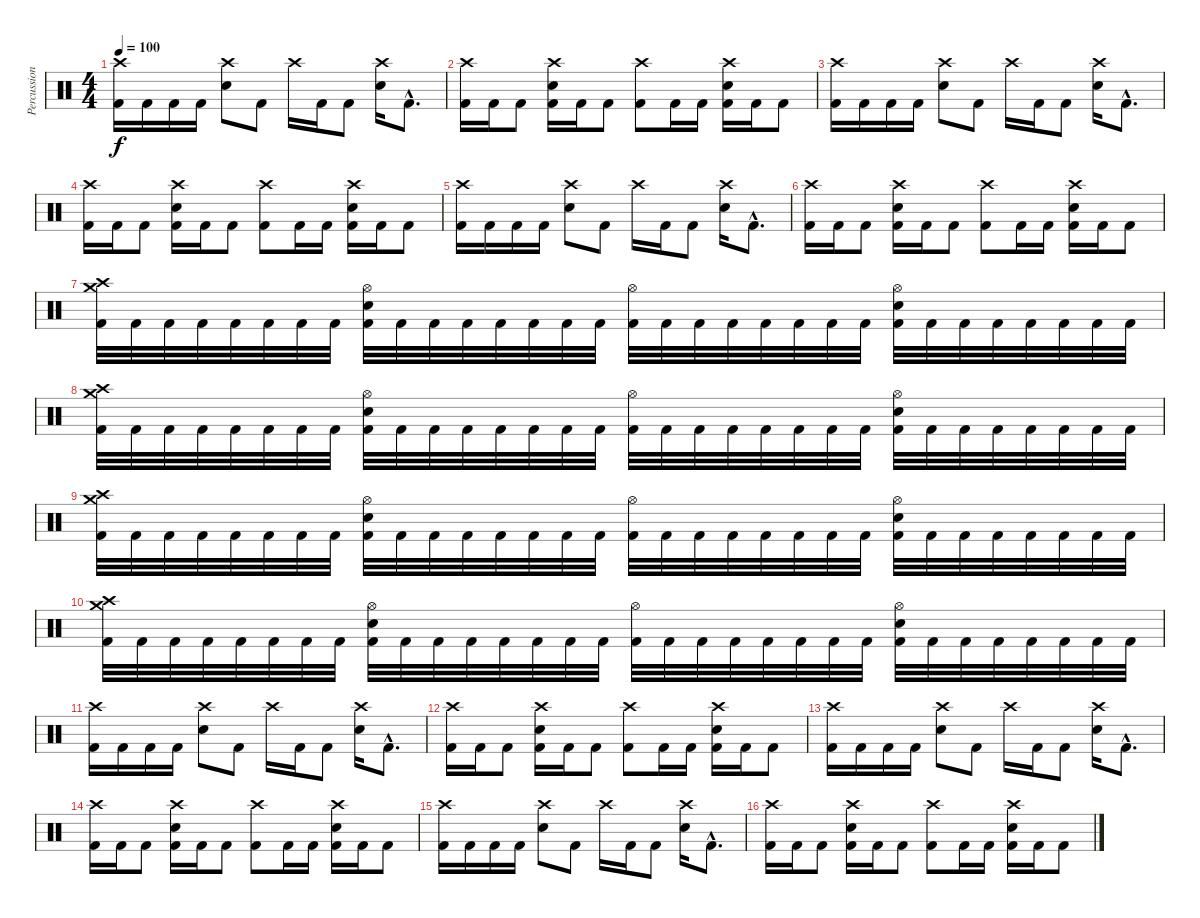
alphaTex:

\track ("Percussion" "Percussion") {instrument percussion}
\staff {score}
\articulation defaults
\ts (4 4)
\tempo 100
\clef neutral
\ks c
("Crash high (hit)" "Kick (hit) 2").16{dy f} "Kick (hit) 2".16 "Kick (hit) 2".16 "Kick (hit) 2".16 ("Crash high (hit)" "Snare (hit) 2").8 "Kick (hit) 2".8 "Crash high (hit)".16 "Kick (hit) 2".16 "Kick (hit) 2".8 ("Crash high (hit)" "Snare (hit) 2").16 "Kick (hit) 2"{hac}.8{d} |
("Crash high (hit)" "Kick (hit) 2").16 "Kick (hit) 2".16 "Kick (hit) 2".8 ("Crash high (hit)" "Snare (hit) 2" "Kick (hit) 2").16 "Kick (hit) 2".16 "Kick (hit) 2".8 ("Crash high (hit)" "Kick (hit) 2").8 "Kick (hit) 2".16 "Kick (hit) 2".16 ("Crash high (hit)" "Snare (hit) 2" "Kick (hit) 2").16 "Kick (hit) 2".16 "Kick (hit) 2".8 |
("Crash high (hit)" "Kick (hit) 2").16 "Kick (hit) 2".16 "Kick (hit) 2".16 "Kick (hit) 2".16 ("Crash high (hit)" "Snare (hit) 2").8 "Kick (hit) 2".8 "Crash high (hit)".16 "Kick (hit) 2".16 "Kick (hit) 2".8 ("Crash high (hit)" "Snare (hit) 2").16 "Kick (hit) 2"{hac}.8{d} |
("Crash high (hit)" "Kick (hit) 2").16 "Kick (hit) 2".16 "Kick (hit) 2".8 ("Crash high (hit)" "Snare (hit) 2" "Kick (hit) 2").16 "Kick (hit) 2".16 "Kick (hit) 2".8 ("Crash high (hit)" "Kick (hit) 2").8 "Kick (hit) 2".16 "Kick (hit) 2".16 ("Crash high (hit)" "Snare (hit) 2" "Kick (hit) 2").16 "Kick (hit) 2".16 "Kick (hit) 2".8 |
("Crash high (hit)" "Kick (hit) 2").16 "Kick (hit) 2".16 "Kick (hit) 2".16 "Kick (hit) 2".16 ("Crash high (hit)" "Snare (hit) 2").8 "Kick (hit) 2".8 "Crash high (hit)".16 "Kick (hit) 2".16 "Kick (hit) 2".8 ("Crash high (hit)" "Snare (hit) 2").16 "Kick (hit) 2"{hac}.8{d} |
("Crash high (hit)" "Kick (hit) 2").16 "Kick (hit) 2".16 "Kick (hit) 2".8 ("Crash high (hit)" "Snare (hit) 2" "Kick (hit) 2").16 "Kick (hit) 2".16 "Kick (hit) 2".8 ("Crash high (hit)" "Kick (hit) 2").8 "Kick (hit) 2".16 "Kick (hit) 2".16 ("Crash high (hit)" "Snare (hit) 2" "Kick (hit) 2").16 "Kick (hit) 2".16 "Kick (hit) 2".8 |
("Crash high (hit)" "Crash medium (hit)" "Kick (hit) 2").32 "Kick (hit) 2".32 "Kick (hit) 2".32 "Kick (hit) 2".32 "Kick (hit) 2".32 "Kick (hit) 2".32 "Kick (hit) 2".32 "Kick (hit) 2".32 ("Hi-Hat (open)" "Snare (hit) 2" "Kick (hit) 2").32 "Kick (hit) 2".32 "Kick (hit) 2".32 "Kick (hit) 2".32 "Kick (hit) 2".32 "Kick (hit) 2".32 "Kick (hit) 2".32 "Kick (hit) 2".32 ("Hi-Hat (open)" "Kick (hit) 2").32 "Kick (hit) 2".32 "Kick (hit) 2".32 "Kick (hit) 2".32 "Kick (hit) 2".32 "Kick (hit) 2".32 "Kick (hit) 2".32 "Kick (hit) 2".32 ("Hi-Hat (open)" "Snare (hit) 2" "Kick (hit) 2").32 "Kick (hit) 2".32 "Kick (hit) 2".32 "Kick (hit) 2".32 "Kick (hit) 2".32 "Kick (hit) 2".32 "Kick (hit) 2".32 "Kick (hit) 2".32 |
("Crash high (hit)" "Crash medium (hit)" "Kick (hit) 2").32 "Kick (hit) 2".32 "Kick (hit) 2".32 "Kick (hit) 2".32 "Kick (hit) 2".32 "Kick (hit) 2".32 "Kick (hit) 2".32 "Kick (hit) 2".32 ("Hi-Hat (open)" "Snare (hit) 2" "Kick (hit) 2").32 "Kick (hit) 2".32 "Kick (hit) 2".32 "Kick (hit) 2".32 "Kick (hit) 2".32 "Kick (hit) 2".32 "Kick (hit) 2".32 "Kick (hit) 2".32 ("Hi-Hat (open)" "Kick (hit) 2").32 "Kick (hit) 2".32 "Kick (hit) 2".32 "Kick (hit) 2".32 "Kick (hit) 2".32 "Kick (hit) 2".32 "Kick (hit) 2".32 "Kick (hit) 2".32 ("Hi-Hat (open)" "Snare (hit) 2" "Kick (hit) 2").32 "Kick (hit) 2".32 "Kick (hit) 2".32 "Kick (hit) 2".32 "Kick (hit) 2".32 "Kick (hit) 2".32 "Kick (hit) 2".32 "Kick (hit) 2".32 |
("Crash high (hit)" "Crash medium (hit)" "Kick (hit) 2").32 "Kick (hit) 2".32 "Kick (hit) 2".32 "Kick (hit) 2".32 "Kick (hit) 2".32 "Kick (hit) 2".32 "Kick (hit) 2".32 "Kick (hit) 2".32 ("Hi-Hat (open)" "Snare (hit) 2" "Kick (hit) 2").32 "Kick (hit) 2".32 "Kick (hit) 2".32 "Kick (hit) 2".32 "Kick (hit) 2".32 "Kick (hit) 2".32 "Kick (hit) 2".32 "Kick (hit) 2".32 ("Hi-Hat (open)" "Kick (hit) 2").32 "Kick (hit) 2".32 "Kick (hit) 2".32 "Kick (hit) 2".32 "Kick (hit) 2".32 "Kick (hit) 2".32 "Kick (hit) 2".32 "Kick (hit) 2".32 ("Hi-Hat (open)" "Snare (hit) 2" "Kick (hit) 2").32 "Kick (hit) 2".32 "Kick (hit) 2".32 "Kick (hit) 2".32 "Kick (hit) 2".32 "Kick (hit) 2".32 "Kick (hit) 2".32 "Kick (hit) 2".32 |
("Crash high (hit)" "Crash medium (hit)" "Kick (hit) 2").32 "Kick (hit) 2".32 "Kick (hit) 2".32 "Kick (hit) 2".32 "Kick (hit) 2".32 "Kick (hit) 2".32 "Kick (hit) 2".32 "Kick (hit) 2".32 ("Hi-Hat (open)" "Snare (hit) 2" "Kick (hit) 2").32 "Kick (hit) 2".32 "Kick (hit) 2".32 "Kick (hit) 2".32 "Kick (hit) 2".32 "Kick (hit) 2".32 "Kick (hit) 2".32 "Kick (hit) 2".32 ("Hi-Hat (open)" "Kick (hit) 2").32 "Kick (hit) 2".32 "Kick (hit) 2".32 "Kick (hit) 2".32 "Kick (hit) 2".32 "Kick (hit) 2".32 "Kick (hit) 2".32 "Kick (hit) 2".32 ("Hi-Hat (open)" "Snare (hit) 2" "Kick (hit) 2").32 "Kick (hit) 2".32 "Kick (hit) 2".32 "Kick (hit) 2".32 "Kick (hit) 2".32 "Kick (hit) 2".32 "Kick (hit) 2".32 "Kick (hit) 2".32 |
("Crash high (hit)" "Kick (hit) 2").16 "Kick (hit) 2".16 "Kick (hit) 2".16 "Kick (hit) 2".16 ("Crash high (hit)" "Snare (hit) 2").8 "Kick (hit) 2".8 "Crash high (hit)".16 "Kick (hit) 2".16 "Kick (hit) 2".8 ("Crash high (hit)" "Snare (hit) 2").16 "Kick (hit) 2"{hac}.8{d} |
("Crash high (hit)" "Kick (hit) 2").16 "Kick (hit) 2".16 "Kick (hit) 2".8 ("Crash high (hit)" "Snare (hit) 2" "Kick (hit) 2").16 "Kick (hit) 2".16 "Kick (hit) 2".8 ("Crash high (hit)" "Kick (hit) 2").8 "Kick (hit) 2".16 "Kick (hit) 2".16 ("Crash high (hit)" "Snare (hit) 2" "Kick (hit) 2").16 "Kick (hit) 2".16 "Kick (hit) 2".8 |
("Crash high (hit)" "Kick (hit) 2").16 "Kick (hit) 2".16 "Kick (hit) 2".16 "Kick (hit) 2".16 ("Crash high (hit)" "Snare (hit) 2").8 "Kick (hit) 2".8 "Crash high (hit)".16 "Kick (hit) 2".16 "Kick (hit) 2".8 ("Crash high (hit)" "Snare (hit) 2").16 "Kick (hit) 2"{hac}.8{d} |
("Crash high (hit)" "Kick (hit) 2").16 "Kick (hit) 2".16 "Kick (hit) 2".8 ("Crash high (hit)" "Snare (hit) 2" "Kick (hit) 2").16 "Kick (hit) 2".16 "Kick (hit) 2".8 ("Crash high (hit)" "Kick (hit) 2").8 "Kick (hit) 2".16 "Kick (hit) 2".16 ("Crash high (hit)" "Snare (hit) 2" "Kick (hit) 2").16 "Kick (hit) 2".16 "Kick (hit) 2".8 |
("Crash high (hit)" "Kick (hit) 2").16 "Kick (hit) 2".16 "Kick (hit) 2".16 "Kick (hit) 2".16 ("Crash high (hit)" "Snare (hit) 2").8 "Kick (hit) 2".8 "Crash high (hit)".16 "Kick (hit) 2".16 "Kick (hit) 2".8 ("Crash high (hit)" "Snare (hit) 2").16 "Kick (hit) 2"{hac}.8{d} |
("Crash high (hit)" "Kick (hit) 2").16 "Kick (hit) 2".16 "Kick (hit) 2".8 ("Crash high (hit)" "Snare (hit) 2" "Kick (hit) 2").16 "Kick (hit) 2".16 "Kick (hit) 2".8 ("Crash high (hit)" "Kick (hit) 2").8 "Kick (hit) 2".16 "Kick (hit) 2".16 ("Crash high (hit)" "Snare (hit) 2" "Kick (hit) 2").16 "Kick (hit) 2".16 "Kick (hit) 2".8
